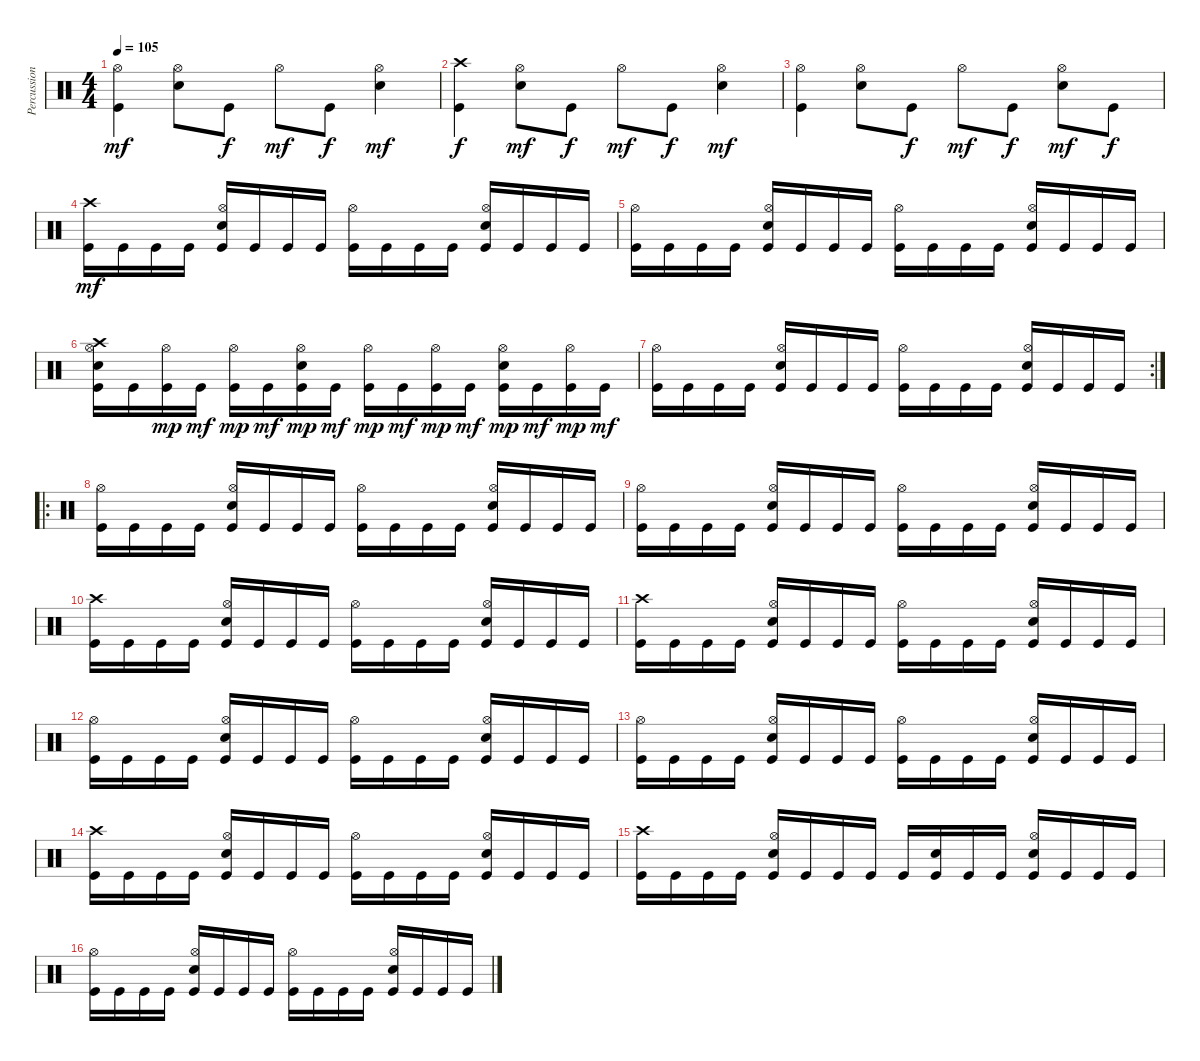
\track ("Percussions" "Percussion") {instrument percussion}
\staff {score}
\articulation defaults
\ts (4 4)
\tempo 105
\clef neutral
\ks c
("Kick (hit)" "Hi-Hat (open)").4{dy mf} ("Electric Snare (hit)" "Hi-Hat (open)").8 "Kick (hit)".8{dy f} "Hi-Hat (open)".8{dy mf} "Kick (hit)".8{dy f} ("Electric Snare (hit)" "Hi-Hat (open)").4{dy mf} |
("Kick (hit)" "Crash high (hit)").4{dy f} ("Electric Snare (hit)" "Hi-Hat (open)").8{dy mf} "Kick (hit)".8{dy f} "Hi-Hat (open)".8{dy mf} "Kick (hit)".8{dy f} ("Electric Snare (hit)" "Hi-Hat (open)").4{dy mf} |
("Kick (hit)" "Hi-Hat (open)").4 ("Electric Snare (hit)" "Hi-Hat (open)").8 "Kick (hit)".8{dy f} "Hi-Hat (open)".8{dy mf} "Kick (hit)".8{dy f} ("Electric Snare (hit)" "Hi-Hat (open)").8{dy mf} "Kick (hit)".8{dy f} |
("Kick (hit)" "Crash high (hit)").16{dy mf} "Kick (hit)".16 "Kick (hit)".16 "Kick (hit)".16 ("Kick (hit)" "Electric Snare (hit)" "Hi-Hat (open)").16 "Kick (hit)".16 "Kick (hit)".16 "Kick (hit)".16 ("Kick (hit)" "Hi-Hat (open)").16 "Kick (hit)".16 "Kick (hit)".16 "Kick (hit)".16 ("Kick (hit)" "Electric Snare (hit)" "Hi-Hat (open)").16 "Kick (hit)".16 "Kick (hit)".16 "Kick (hit)".16 |
("Kick (hit)" "Hi-Hat (open)").16 "Kick (hit)".16 "Kick (hit)".16 "Kick (hit)".16 ("Kick (hit)" "Electric Snare (hit)" "Hi-Hat (open)").16 "Kick (hit)".16 "Kick (hit)".16 "Kick (hit)".16 ("Kick (hit)" "Hi-Hat (open)").16 "Kick (hit)".16 "Kick (hit)".16 "Kick (hit)".16 ("Kick (hit)" "Electric Snare (hit)" "Hi-Hat (open)").16 "Kick (hit)".16 "Kick (hit)".16 "Kick (hit)".16 |
("Kick (hit)" "Electric Snare (hit)" "Hi-Hat (open)" "Crash high (hit)").16 "Kick (hit)".16 ("Kick (hit)" "Hi-Hat (open)").16{dy mp} "Kick (hit)".16{dy mf} ("Kick (hit)" "Hi-Hat (open)").16{dy mp} "Kick (hit)".16{dy mf} ("Kick (hit)" "Electric Snare (hit)" "Hi-Hat (open)").16{dy mp} "Kick (hit)".16{dy mf} ("Kick (hit)" "Hi-Hat (open)").16{dy mp} "Kick (hit)".16{dy mf} ("Kick (hit)" "Hi-Hat (open)").16{dy mp} "Kick (hit)".16{dy mf} ("Kick (hit)" "Electric Snare (hit)" "Hi-Hat (open)").16{dy mp} "Kick (hit)".16{dy mf} ("Kick (hit)" "Hi-Hat (open)").16{dy mp} "Kick (hit)".16{dy mf} |
\rc 2
("Kick (hit)" "Hi-Hat (open)").16 "Kick (hit)".16 "Kick (hit)".16 "Kick (hit)".16 ("Kick (hit)" "Electric Snare (hit)" "Hi-Hat (open)").16 "Kick (hit)".16 "Kick (hit)".16 "Kick (hit)".16 ("Kick (hit)" "Hi-Hat (open)").16 "Kick (hit)".16 "Kick (hit)".16 "Kick (hit)".16 ("Kick (hit)" "Electric Snare (hit)" "Hi-Hat (open)").16 "Kick (hit)".16 "Kick (hit)".16 "Kick (hit)".16 |
\ro
("Kick (hit)" "Hi-Hat (open)").16 "Kick (hit)".16 "Kick (hit)".16 "Kick (hit)".16 ("Kick (hit)" "Electric Snare (hit)" "Hi-Hat (open)").16 "Kick (hit)".16 "Kick (hit)".16 "Kick (hit)".16 ("Kick (hit)" "Hi-Hat (open)").16 "Kick (hit)".16 "Kick (hit)".16 "Kick (hit)".16 ("Kick (hit)" "Electric Snare (hit)" "Hi-Hat (open)").16 "Kick (hit)".16 "Kick (hit)".16 "Kick (hit)".16 |
("Kick (hit)" "Hi-Hat (open)").16 "Kick (hit)".16 "Kick (hit)".16 "Kick (hit)".16 ("Kick (hit)" "Electric Snare (hit)" "Hi-Hat (open)").16 "Kick (hit)".16 "Kick (hit)".16 "Kick (hit)".16 ("Kick (hit)" "Hi-Hat (open)").16 "Kick (hit)".16 "Kick (hit)".16 "Kick (hit)".16 ("Kick (hit)" "Electric Snare (hit)" "Hi-Hat (open)").16 "Kick (hit)".16 "Kick (hit)".16 "Kick (hit)".16 |
("Kick (hit)" "Crash high (hit)").16 "Kick (hit)".16 "Kick (hit)".16 "Kick (hit)".16 ("Kick (hit)" "Electric Snare (hit)" "Hi-Hat (open)").16 "Kick (hit)".16 "Kick (hit)".16 "Kick (hit)".16 ("Kick (hit)" "Hi-Hat (open)").16 "Kick (hit)".16 "Kick (hit)".16 "Kick (hit)".16 ("Kick (hit)" "Electric Snare (hit)" "Hi-Hat (open)").16 "Kick (hit)".16 "Kick (hit)".16 "Kick (hit)".16 |
("Kick (hit)" "Crash high (hit)").16 "Kick (hit)".16 "Kick (hit)".16 "Kick (hit)".16 ("Kick (hit)" "Electric Snare (hit)" "Hi-Hat (open)").16 "Kick (hit)".16 "Kick (hit)".16 "Kick (hit)".16 ("Kick (hit)" "Hi-Hat (open)").16 "Kick (hit)".16 "Kick (hit)".16 "Kick (hit)".16 ("Kick (hit)" "Electric Snare (hit)" "Hi-Hat (open)").16 "Kick (hit)".16 "Kick (hit)".16 "Kick (hit)".16 |
("Kick (hit)" "Hi-Hat (open)").16 "Kick (hit)".16 "Kick (hit)".16 "Kick (hit)".16 ("Kick (hit)" "Electric Snare (hit)" "Hi-Hat (open)").16 "Kick (hit)".16 "Kick (hit)".16 "Kick (hit)".16 ("Kick (hit)" "Hi-Hat (open)").16 "Kick (hit)".16 "Kick (hit)".16 "Kick (hit)".16 ("Kick (hit)" "Electric Snare (hit)" "Hi-Hat (open)").16 "Kick (hit)".16 "Kick (hit)".16 "Kick (hit)".16 |
("Kick (hit)" "Hi-Hat (open)").16 "Kick (hit)".16 "Kick (hit)".16 "Kick (hit)".16 ("Kick (hit)" "Electric Snare (hit)" "Hi-Hat (open)").16 "Kick (hit)".16 "Kick (hit)".16 "Kick (hit)".16 ("Kick (hit)" "Hi-Hat (open)").16 "Kick (hit)".16 "Kick (hit)".16 "Kick (hit)".16 ("Kick (hit)" "Electric Snare (hit)" "Hi-Hat (open)").16 "Kick (hit)".16 "Kick (hit)".16 "Kick (hit)".16 |
("Kick (hit)" "Crash high (hit)").16 "Kick (hit)".16 "Kick (hit)".16 "Kick (hit)".16 ("Kick (hit)" "Electric Snare (hit)" "Hi-Hat (open)").16 "Kick (hit)".16 "Kick (hit)".16 "Kick (hit)".16 ("Kick (hit)" "Hi-Hat (open)").16 "Kick (hit)".16 "Kick (hit)".16 "Kick (hit)".16 ("Kick (hit)" "Electric Snare (hit)" "Hi-Hat (open)").16 "Kick (hit)".16 "Kick (hit)".16 "Kick (hit)".16 |
("Kick (hit)" "Crash high (hit)").16 "Kick (hit)".16 "Kick (hit)".16 "Kick (hit)".16 ("Kick (hit)" "Electric Snare (hit)" "Hi-Hat (open)").16 "Kick (hit)".16 "Kick (hit)".16 "Kick (hit)".16 "Kick (hit)".16 ("Kick (hit)" "Electric Snare (hit)").16 "Kick (hit)".16 "Kick (hit)".16 ("Kick (hit)" "Electric Snare (hit)" "Hi-Hat (open)").16 "Kick (hit)".16 "Kick (hit)".16 "Kick (hit)".16 |
("Kick (hit)" "Hi-Hat (open)").16 "Kick (hit)".16 "Kick (hit)".16 "Kick (hit)".16 ("Kick (hit)" "Electric Snare (hit)" "Hi-Hat (open)").16 "Kick (hit)".16 "Kick (hit)".16 "Kick (hit)".16 ("Kick (hit)" "Hi-Hat (open)").16 "Kick (hit)".16 "Kick (hit)".16 "Kick (hit)".16 ("Kick (hit)" "Electric Snare (hit)" "Hi-Hat (open)").16 "Kick (hit)".16 "Kick (hit)".16 "Kick (hit)".16
